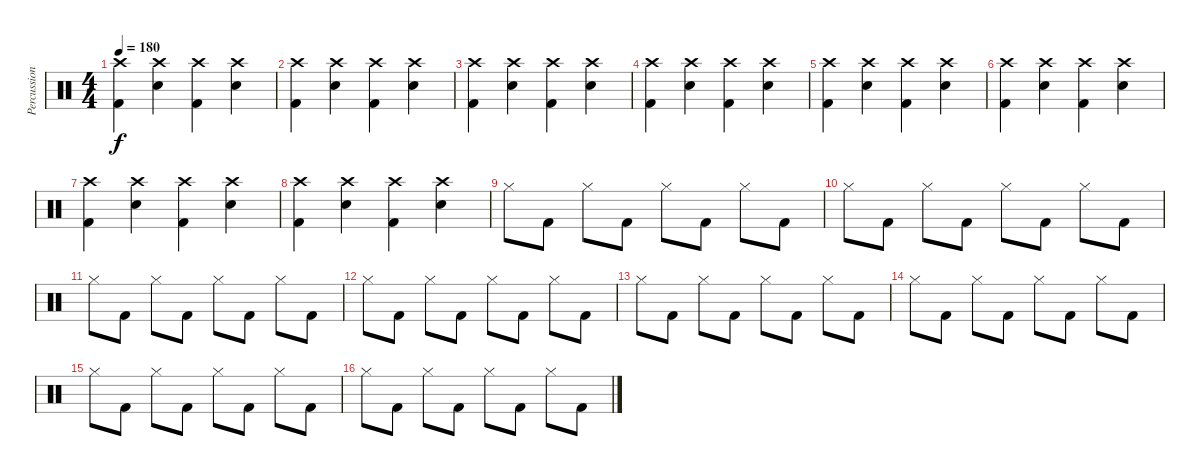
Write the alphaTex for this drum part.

\track ("Percussions" "Percussion") {instrument percussion}
\staff {score}
\articulation defaults
\ts (4 4)
\tempo 180
\clef neutral
\ks c
("Crash high (hit)" "Kick (hit) 2").4{dy f} ("Crash high (hit)" "Snare (hit) 2").4 ("Crash high (hit)" "Kick (hit) 2").4 ("Crash high (hit)" "Snare (hit) 2").4 |
("Crash high (hit)" "Kick (hit) 2").4 ("Crash high (hit)" "Snare (hit) 2").4 ("Crash high (hit)" "Kick (hit) 2").4 ("Crash high (hit)" "Snare (hit) 2").4 |
("Crash high (hit)" "Kick (hit) 2").4 ("Crash high (hit)" "Snare (hit) 2").4 ("Crash high (hit)" "Kick (hit) 2").4 ("Crash high (hit)" "Snare (hit) 2").4 |
("Crash high (hit)" "Kick (hit) 2").4 ("Crash high (hit)" "Snare (hit) 2").4 ("Crash high (hit)" "Kick (hit) 2").4 ("Crash high (hit)" "Snare (hit) 2").4 |
("Crash high (hit)" "Kick (hit) 2").4 ("Crash high (hit)" "Snare (hit) 2").4 ("Crash high (hit)" "Kick (hit) 2").4 ("Crash high (hit)" "Snare (hit) 2").4 |
("Crash high (hit)" "Kick (hit) 2").4 ("Crash high (hit)" "Snare (hit) 2").4 ("Crash high (hit)" "Kick (hit) 2").4 ("Crash high (hit)" "Snare (hit) 2").4 |
("Crash high (hit)" "Kick (hit) 2").4 ("Crash high (hit)" "Snare (hit) 2").4 ("Crash high (hit)" "Kick (hit) 2").4 ("Crash high (hit)" "Snare (hit) 2").4 |
("Crash high (hit)" "Kick (hit) 2").4 ("Crash high (hit)" "Snare (hit) 2").4 ("Crash high (hit)" "Kick (hit) 2").4 ("Crash high (hit)" "Snare (hit) 2").4 |
"Hi-Hat (closed)".8 "Kick (hit) 2".8 "Hi-Hat (closed)".8 "Kick (hit) 2".8 "Hi-Hat (closed)".8 "Kick (hit) 2".8 "Hi-Hat (closed)".8 "Kick (hit) 2".8 |
"Hi-Hat (closed)".8 "Kick (hit) 2".8 "Hi-Hat (closed)".8 "Kick (hit) 2".8 "Hi-Hat (closed)".8 "Kick (hit) 2".8 "Hi-Hat (closed)".8 "Kick (hit) 2".8 |
"Hi-Hat (closed)".8 "Kick (hit) 2".8 "Hi-Hat (closed)".8 "Kick (hit) 2".8 "Hi-Hat (closed)".8 "Kick (hit) 2".8 "Hi-Hat (closed)".8 "Kick (hit) 2".8 |
"Hi-Hat (closed)".8 "Kick (hit) 2".8 "Hi-Hat (closed)".8 "Kick (hit) 2".8 "Hi-Hat (closed)".8 "Kick (hit) 2".8 "Hi-Hat (closed)".8 "Kick (hit) 2".8 |
"Hi-Hat (closed)".8 "Kick (hit) 2".8 "Hi-Hat (closed)".8 "Kick (hit) 2".8 "Hi-Hat (closed)".8 "Kick (hit) 2".8 "Hi-Hat (closed)".8 "Kick (hit) 2".8 |
"Hi-Hat (closed)".8 "Kick (hit) 2".8 "Hi-Hat (closed)".8 "Kick (hit) 2".8 "Hi-Hat (closed)".8 "Kick (hit) 2".8 "Hi-Hat (closed)".8 "Kick (hit) 2".8 |
"Hi-Hat (closed)".8 "Kick (hit) 2".8 "Hi-Hat (closed)".8 "Kick (hit) 2".8 "Hi-Hat (closed)".8 "Kick (hit) 2".8 "Hi-Hat (closed)".8 "Kick (hit) 2".8 |
"Hi-Hat (closed)".8 "Kick (hit) 2".8 "Hi-Hat (closed)".8 "Kick (hit) 2".8 "Hi-Hat (closed)".8 "Kick (hit) 2".8 "Hi-Hat (closed)".8 "Kick (hit) 2".8
